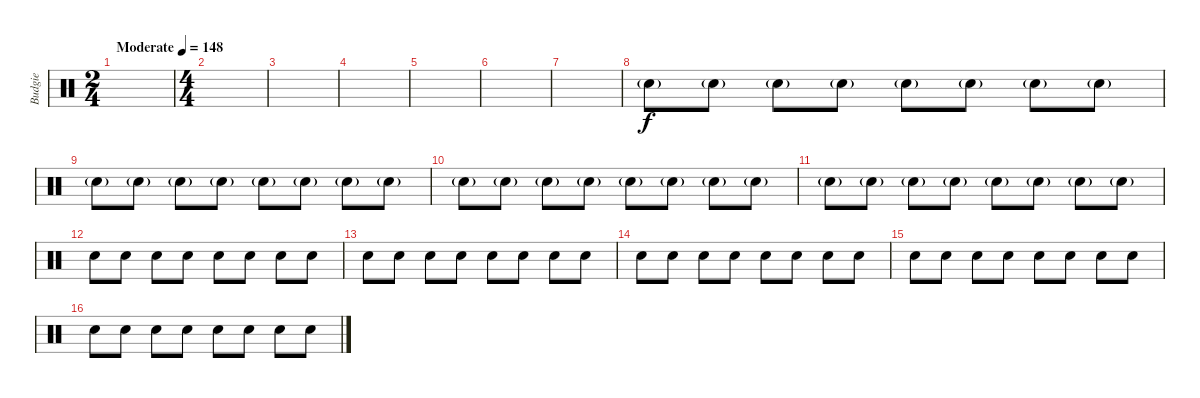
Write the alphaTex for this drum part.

\track ("Budgie" "Budgie") {instrument percussion}
\staff {score}
\articulation defaults
\ts (2 4)
\tempo (148 "Moderate")
\clef neutral
\ks c
|
\ts (4 4)
|
|
|
|
|
|
"Snare (hit) 2"{g}.8{volume 7} "Snare (hit) 2"{g}.8 "Snare (hit) 2"{g}.8 "Snare (hit) 2"{g}.8 "Snare (hit) 2"{g}.8 "Snare (hit) 2"{g}.8 "Snare (hit) 2"{g}.8 "Snare (hit) 2"{g}.8 |
"Snare (hit) 2"{g}.8 "Snare (hit) 2"{g}.8 "Snare (hit) 2"{g}.8 "Snare (hit) 2"{g}.8 "Snare (hit) 2"{g}.8 "Snare (hit) 2"{g}.8 "Snare (hit) 2"{g}.8 "Snare (hit) 2"{g}.8 |
"Snare (hit) 2"{g}.8 "Snare (hit) 2"{g}.8 "Snare (hit) 2"{g}.8 "Snare (hit) 2"{g}.8 "Snare (hit) 2"{g}.8 "Snare (hit) 2"{g}.8 "Snare (hit) 2"{g}.8 "Snare (hit) 2"{g}.8 |
"Snare (hit) 2"{g}.8 "Snare (hit) 2"{g}.8 "Snare (hit) 2"{g}.8 "Snare (hit) 2"{g}.8 "Snare (hit) 2"{g}.8 "Snare (hit) 2"{g}.8 "Snare (hit) 2"{g}.8 "Snare (hit) 2"{g}.8 |
"Snare (hit) 2".8{dy f volume 13} "Snare (hit) 2".8 "Snare (hit) 2".8 "Snare (hit) 2".8 "Snare (hit) 2".8 "Snare (hit) 2".8 "Snare (hit) 2".8 "Snare (hit) 2".8 |
"Snare (hit) 2".8 "Snare (hit) 2".8 "Snare (hit) 2".8 "Snare (hit) 2".8 "Snare (hit) 2".8 "Snare (hit) 2".8 "Snare (hit) 2".8 "Snare (hit) 2".8 |
"Snare (hit) 2".8 "Snare (hit) 2".8 "Snare (hit) 2".8 "Snare (hit) 2".8 "Snare (hit) 2".8 "Snare (hit) 2".8 "Snare (hit) 2".8 "Snare (hit) 2".8 |
"Snare (hit) 2".8 "Snare (hit) 2".8 "Snare (hit) 2".8 "Snare (hit) 2".8 "Snare (hit) 2".8 "Snare (hit) 2".8 "Snare (hit) 2".8 "Snare (hit) 2".8 |
"Snare (hit) 2".8 "Snare (hit) 2".8 "Snare (hit) 2".8 "Snare (hit) 2".8 "Snare (hit) 2".8 "Snare (hit) 2".8 "Snare (hit) 2".8 "Snare (hit) 2".8
